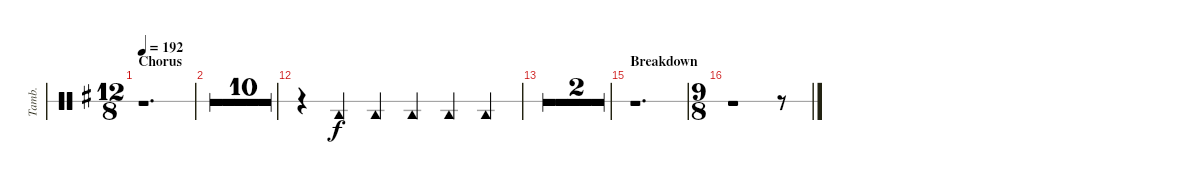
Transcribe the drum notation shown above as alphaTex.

\defaultSystemsLayout 4
\bracketExtendMode groupsimilarinstruments
\otherSystemsTrackNameOrientation horizontal
\track ("Tambourine" "Tamb.") {multiBarRest instrument percussion}
\staff {score 1}
\articulation defaults
\ts (12 8)
\section ("" "Chorus")
\tempo 192
\clef neutral
\ks g
r.1{d dy f} |
r.1{d} |
r.1{d} |
r.1{d} |
r.1{d} |
r.1{d} |
r.1{d} |
r.1{d} |
r.1{d} |
r.1{d} |
r.1{d} |
r.4 "Tambourine (hit)"{acc forcenatural}.4 "Tambourine (hit)"{acc forcenatural}.4 "Tambourine (hit)"{acc forcenatural}.4 "Tambourine (hit)"{acc forcenatural}.4 "Tambourine (hit)"{acc forcenatural}.4 |
r.1{d} |
r.1{d} |
\section ("" "Breakdown")
r.1{d} |
\ts (9 8)
\beaming (8 3 3 3 3)
r.1 r.8
